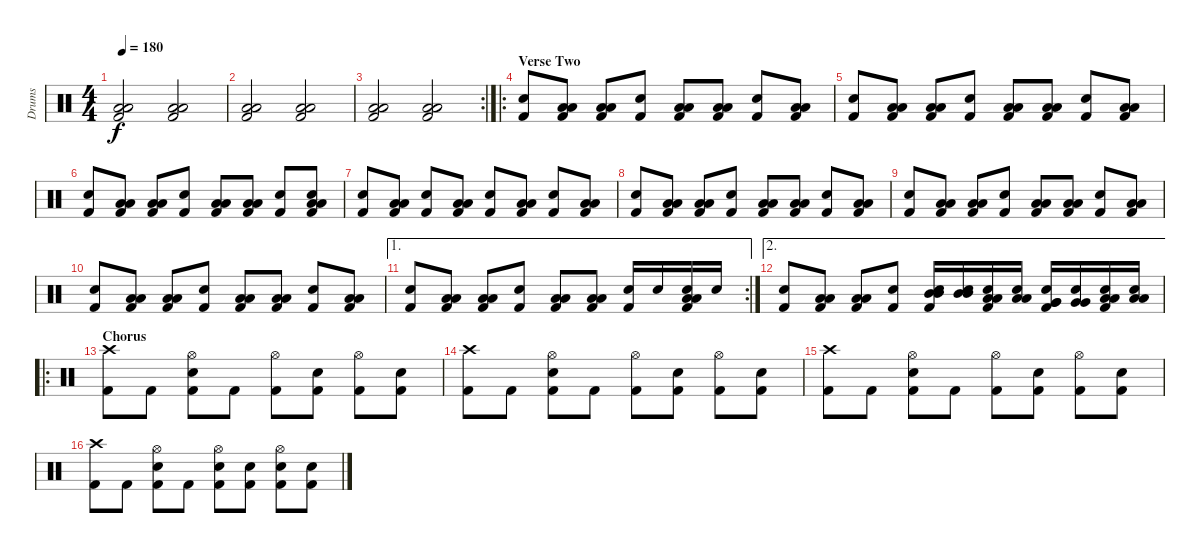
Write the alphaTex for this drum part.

\track ("Drums" "Drums") {instrument percussion}
\staff {score}
\articulation defaults
\ts (4 4)
\tempo 180
\clef neutral
\ks c
("Kick (hit) 2" "Low Tom (hit)" "Low Floor Tom (hit)").2{dy f} ("Kick (hit) 2" "Low Tom (hit)" "Low Floor Tom (hit)").2 |
("Kick (hit) 2" "Low Tom (hit)" "Low Floor Tom (hit)").2 ("Kick (hit) 2" "Low Tom (hit)" "Low Floor Tom (hit)").2 |
\rc 2
("Kick (hit) 2" "Low Tom (hit)" "Low Floor Tom (hit)").2 ("Kick (hit) 2" "Low Tom (hit)" "Low Floor Tom (hit)").2 |
\ro
\section ("" "Verse Two")
("Kick (hit) 2" "Electric Snare (hit)").8 ("Kick (hit) 2" "Low Tom (hit)" "Low Floor Tom (hit)").8 ("Kick (hit) 2" "Low Tom (hit)" "Low Floor Tom (hit)").8 ("Kick (hit) 2" "Electric Snare (hit)").8 ("Kick (hit) 2" "Low Floor Tom (hit)" "Low Tom (hit)").8 ("Kick (hit) 2" "Low Floor Tom (hit)" "Low Tom (hit)").8 ("Kick (hit) 2" "Electric Snare (hit)").8 ("Kick (hit) 2" "Low Floor Tom (hit)" "Low Tom (hit)").8 |
("Kick (hit) 2" "Electric Snare (hit)").8 ("Kick (hit) 2" "Low Tom (hit)" "Low Floor Tom (hit)").8 ("Kick (hit) 2" "Low Tom (hit)" "Low Floor Tom (hit)").8 ("Kick (hit) 2" "Electric Snare (hit)").8 ("Kick (hit) 2" "Low Floor Tom (hit)" "Low Tom (hit)").8 ("Kick (hit) 2" "Low Floor Tom (hit)" "Low Tom (hit)").8 ("Kick (hit) 2" "Electric Snare (hit)").8 ("Kick (hit) 2" "Low Floor Tom (hit)" "Low Tom (hit)").8 |
("Kick (hit) 2" "Electric Snare (hit)").8 ("Kick (hit) 2" "Low Tom (hit)" "Low Floor Tom (hit)").8 ("Kick (hit) 2" "Low Tom (hit)" "Low Floor Tom (hit)").8 ("Kick (hit) 2" "Electric Snare (hit)").8 ("Kick (hit) 2" "Low Floor Tom (hit)" "Low Tom (hit)").8 ("Kick (hit) 2" "Low Floor Tom (hit)" "Low Tom (hit)").8 ("Kick (hit) 2" "Electric Snare (hit)").8 ("Kick (hit) 2" "Low Floor Tom (hit)" "Low Tom (hit)" "Electric Snare (hit)").8 |
("Kick (hit) 2" "Electric Snare (hit)").8 ("Kick (hit) 2" "Low Floor Tom (hit)" "Low Tom (hit)").8 ("Kick (hit) 2" "Electric Snare (hit)").8 ("Kick (hit) 2" "Low Floor Tom (hit)" "Low Tom (hit)").8 ("Kick (hit) 2" "Electric Snare (hit)").8 ("Kick (hit) 2" "Low Tom (hit)" "Low Floor Tom (hit)").8 ("Kick (hit) 2" "Electric Snare (hit)").8 ("Kick (hit) 2" "Low Tom (hit)" "Low Floor Tom (hit)").8 |
("Kick (hit) 2" "Electric Snare (hit)").8 ("Kick (hit) 2" "Low Tom (hit)" "Low Floor Tom (hit)").8 ("Kick (hit) 2" "Low Tom (hit)" "Low Floor Tom (hit)").8 ("Kick (hit) 2" "Electric Snare (hit)").8 ("Kick (hit) 2" "Low Floor Tom (hit)" "Low Tom (hit)").8 ("Kick (hit) 2" "Low Floor Tom (hit)" "Low Tom (hit)").8 ("Kick (hit) 2" "Electric Snare (hit)").8 ("Kick (hit) 2" "Low Floor Tom (hit)" "Low Tom (hit)").8 |
("Kick (hit) 2" "Electric Snare (hit)").8 ("Kick (hit) 2" "Low Tom (hit)" "Low Floor Tom (hit)").8 ("Kick (hit) 2" "Low Tom (hit)" "Low Floor Tom (hit)").8 ("Kick (hit) 2" "Electric Snare (hit)").8 ("Kick (hit) 2" "Low Floor Tom (hit)" "Low Tom (hit)").8 ("Kick (hit) 2" "Low Floor Tom (hit)" "Low Tom (hit)").8 ("Kick (hit) 2" "Electric Snare (hit)").8 ("Kick (hit) 2" "Low Floor Tom (hit)" "Low Tom (hit)").8 |
("Kick (hit) 2" "Electric Snare (hit)").8 ("Kick (hit) 2" "Low Tom (hit)" "Low Floor Tom (hit)").8 ("Kick (hit) 2" "Low Tom (hit)" "Low Floor Tom (hit)").8 ("Kick (hit) 2" "Electric Snare (hit)").8 ("Kick (hit) 2" "Low Floor Tom (hit)" "Low Tom (hit)").8 ("Kick (hit) 2" "Low Floor Tom (hit)" "Low Tom (hit)").8 ("Kick (hit) 2" "Electric Snare (hit)").8 ("Kick (hit) 2" "Low Floor Tom (hit)" "Low Tom (hit)").8 |
\ae 1
\rc 2
("Kick (hit) 2" "Electric Snare (hit)").8 ("Kick (hit) 2" "Low Tom (hit)" "Low Floor Tom (hit)").8 ("Kick (hit) 2" "Low Tom (hit)" "Low Floor Tom (hit)").8 ("Kick (hit) 2" "Electric Snare (hit)").8 ("Kick (hit) 2" "Low Floor Tom (hit)" "Low Tom (hit)").8 ("Kick (hit) 2" "Low Floor Tom (hit)" "Low Tom (hit)").8 ("Kick (hit) 2" "Electric Snare (hit)").16 "Electric Snare (hit)".16 ("Kick (hit) 2" "Low Floor Tom (hit)" "Low Tom (hit)" "Electric Snare (hit)").16 "Electric Snare (hit)".16 |
\ae 2
("Kick (hit) 2" "Electric Snare (hit)").8 ("Kick (hit) 2" "Low Tom (hit)" "Low Floor Tom (hit)").8 ("Kick (hit) 2" "Low Tom (hit)" "Low Floor Tom (hit)").8 ("Kick (hit) 2" "Electric Snare (hit)").8 ("Kick (hit) 2" "Mid Tom (hit)" "Mid Tom (hit)" "Electric Snare (hit)").16 ("Mid Tom (hit)" "Mid Tom (hit)" "Electric Snare (hit)").16 ("Kick (hit) 2" "Low Tom (hit)" "Low Tom (hit)" "Electric Snare (hit)").16 ("Low Tom (hit)" "Low Tom (hit)" "Electric Snare (hit)").16 ("Kick (hit) 2" "Very Low Tom (hit)" "Very Low Tom (hit)" "Electric Snare (hit)").16 ("Very Low Tom (hit)" "Very Low Tom (hit)" "Electric Snare (hit)").16 ("Kick (hit) 2" "Low Floor Tom (hit)" "Low Floor Tom (hit)" "Electric Snare (hit)").16 ("Low Floor Tom (hit)" "Low Floor Tom (hit)" "Electric Snare (hit)").16 |
\ro
\section ("" "Chorus")
("Crash high (hit)" "Kick (hit) 2").8 "Kick (hit) 2".8 ("Hi-Hat (open)" "Electric Snare (hit)" "Kick (hit) 2").8 "Kick (hit) 2".8 ("Hi-Hat (open)" "Kick (hit) 2").8 ("Electric Snare (hit)" "Kick (hit) 2").8 ("Hi-Hat (open)" "Kick (hit) 2").8 ("Electric Snare (hit)" "Kick (hit) 2").8 |
("Crash high (hit)" "Kick (hit) 2").8 "Kick (hit) 2".8 ("Hi-Hat (open)" "Electric Snare (hit)" "Kick (hit) 2").8 "Kick (hit) 2".8 ("Hi-Hat (open)" "Kick (hit) 2").8 ("Electric Snare (hit)" "Kick (hit) 2").8 ("Hi-Hat (open)" "Kick (hit) 2").8 ("Electric Snare (hit)" "Kick (hit) 2").8 |
("Crash high (hit)" "Kick (hit) 2").8 "Kick (hit) 2".8 ("Hi-Hat (open)" "Electric Snare (hit)" "Kick (hit) 2").8 "Kick (hit) 2".8 ("Hi-Hat (open)" "Kick (hit) 2").8 ("Electric Snare (hit)" "Kick (hit) 2").8 ("Hi-Hat (open)" "Kick (hit) 2").8 ("Electric Snare (hit)" "Kick (hit) 2").8 |
("Crash high (hit)" "Kick (hit) 2").8 "Kick (hit) 2".8 ("Hi-Hat (open)" "Electric Snare (hit)" "Kick (hit) 2").8 "Kick (hit) 2".8 ("Hi-Hat (open)" "Electric Snare (hit)" "Kick (hit) 2").8 ("Electric Snare (hit)" "Kick (hit) 2").8 ("Hi-Hat (open)" "Electric Snare (hit)" "Kick (hit) 2").8 ("Electric Snare (hit)" "Kick (hit) 2").8
